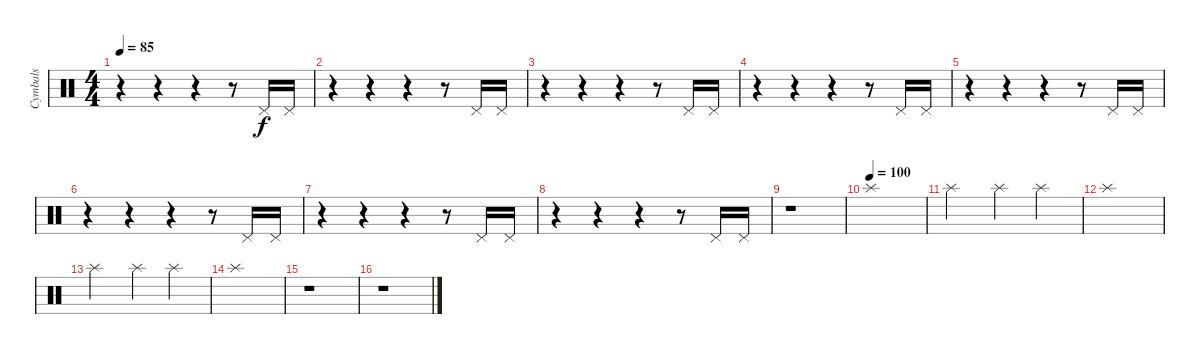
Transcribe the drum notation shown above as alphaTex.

\track ("Cymbals" "Cymbals") {instrument percussion}
\staff {score}
\articulation defaults
\ts (4 4)
\tempo 85
\clef neutral
\ks c
r.4{dy mp} r.4 r.4 r.8 "Pedal Hi-Hat (hit)".16{dy f} "Pedal Hi-Hat (hit)".16 |
r.4 r.4 r.4 r.8 "Pedal Hi-Hat (hit)".16 "Pedal Hi-Hat (hit)".16 |
r.4 r.4 r.4 r.8 "Pedal Hi-Hat (hit)".16 "Pedal Hi-Hat (hit)".16 |
r.4 r.4 r.4 r.8 "Pedal Hi-Hat (hit)".16 "Pedal Hi-Hat (hit)".16 |
r.4 r.4 r.4 r.8 "Pedal Hi-Hat (hit)".16 "Pedal Hi-Hat (hit)".16 |
r.4 r.4 r.4 r.8 "Pedal Hi-Hat (hit)".16 "Pedal Hi-Hat (hit)".16 |
r.4 r.4 r.4 r.8 "Pedal Hi-Hat (hit)".16 "Pedal Hi-Hat (hit)".16 |
r.4 r.4 r.4 r.8 "Pedal Hi-Hat (hit)".16 "Pedal Hi-Hat (hit)".16 |
r.1 |
\tempo (100)
"Splash (hit)".1{volume 12} |
"Splash (hit)".2 "Splash (hit)".4 "Splash (hit)".4 |
"Splash (hit)".1 |
"Splash (hit)".2 "Splash (hit)".4 "Splash (hit)".4 |
"Splash (hit)".1 |
r.1 |
r.1
